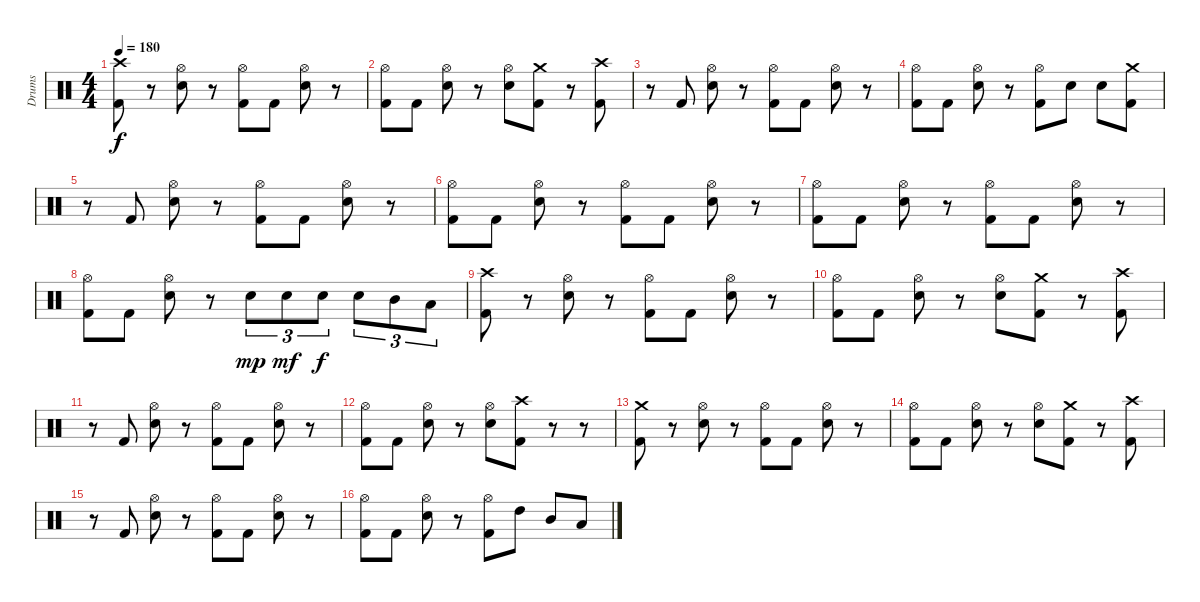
\track ("Drums" "Drums") {instrument percussion}
\staff {score}
\articulation defaults
\ts (4 4)
\tempo 180
\clef neutral
\ks c
("Crash high (hit)" "Kick (hit) 2").8{dy f} r.8 ("Hi-Hat (open)" "Snare (hit) 2").8 r.8 ("Hi-Hat (open)" "Kick (hit) 2").8 "Kick (hit) 2".8 ("Hi-Hat (open)" "Snare (hit) 2").8 r.8 |
("Hi-Hat (open)" "Kick (hit) 2").8 "Kick (hit) 2".8 ("Hi-Hat (open)" "Snare (hit) 2").8 r.8 ("Hi-Hat (open)" "Snare (hit) 2").8 ("Crash medium (hit)" "Kick (hit) 2").8 r.8 ("Crash high (hit)" "Kick (hit) 2").8 |
r.8 "Kick (hit) 2".8 ("Hi-Hat (open)" "Snare (hit) 2").8 r.8 ("Hi-Hat (open)" "Kick (hit) 2").8 "Kick (hit) 2".8 ("Hi-Hat (open)" "Snare (hit) 2").8 r.8 |
("Hi-Hat (open)" "Kick (hit) 2").8 "Kick (hit) 2".8 ("Hi-Hat (open)" "Snare (hit) 2").8 r.8 ("Hi-Hat (open)" "Kick (hit) 2").8 "Snare (hit) 2".8 "Snare (hit) 2".8 ("Crash medium (hit)" "Kick (hit) 2").8 |
r.8 "Kick (hit) 2".8 ("Hi-Hat (open)" "Snare (hit) 2").8 r.8 ("Hi-Hat (open)" "Kick (hit) 2").8 "Kick (hit) 2".8 ("Hi-Hat (open)" "Snare (hit) 2").8 r.8 |
("Hi-Hat (open)" "Kick (hit) 2").8 "Kick (hit) 2".8 ("Hi-Hat (open)" "Snare (hit) 2").8 r.8 ("Hi-Hat (open)" "Kick (hit) 2").8 "Kick (hit) 2".8 ("Hi-Hat (open)" "Snare (hit) 2").8 r.8 |
("Hi-Hat (open)" "Kick (hit) 2").8 "Kick (hit) 2".8 ("Hi-Hat (open)" "Snare (hit) 2").8 r.8 ("Hi-Hat (open)" "Kick (hit) 2").8 "Kick (hit) 2".8 ("Hi-Hat (open)" "Snare (hit) 2").8 r.8 |
("Hi-Hat (open)" "Kick (hit) 2").8 "Kick (hit) 2".8 ("Hi-Hat (open)" "Snare (hit) 2").8 r.8 "Snare (hit) 2".8{tu (3 2) dy mp} "Snare (hit) 2".8{tu (3 2) dy mf} "Snare (hit) 2".8{tu (3 2) dy f} "Snare (hit) 2".8{tu (3 2)} "Mid Tom (hit)".8{tu (3 2)} "Low Tom (hit)".8{tu (3 2)} |
("Crash high (hit)" "Kick (hit) 2").8 r.8 ("Hi-Hat (open)" "Snare (hit) 2").8 r.8 ("Hi-Hat (open)" "Kick (hit) 2").8 "Kick (hit) 2".8 ("Hi-Hat (open)" "Snare (hit) 2").8 r.8 |
("Hi-Hat (open)" "Kick (hit) 2").8 "Kick (hit) 2".8 ("Hi-Hat (open)" "Snare (hit) 2").8 r.8 ("Hi-Hat (open)" "Snare (hit) 2").8 ("Crash medium (hit)" "Kick (hit) 2").8 r.8 ("Crash high (hit)" "Kick (hit) 2").8 |
r.8 "Kick (hit) 2".8 ("Hi-Hat (open)" "Snare (hit) 2").8 r.8 ("Hi-Hat (open)" "Kick (hit) 2").8 "Kick (hit) 2".8 ("Hi-Hat (open)" "Snare (hit) 2").8 r.8 |
("Hi-Hat (open)" "Kick (hit) 2").8 "Kick (hit) 2".8 ("Hi-Hat (open)" "Snare (hit) 2").8 r.8 ("Hi-Hat (open)" "Snare (hit) 2").8 ("Crash high (hit)" "Kick (hit) 2").8 r.8 r.8 |
("Crash medium (hit)" "Kick (hit) 2").8 r.8 ("Hi-Hat (open)" "Snare (hit) 2").8 r.8 ("Hi-Hat (open)" "Kick (hit) 2").8 "Kick (hit) 2".8 ("Hi-Hat (open)" "Snare (hit) 2").8 r.8 |
("Hi-Hat (open)" "Kick (hit) 2").8 "Kick (hit) 2".8 ("Hi-Hat (open)" "Snare (hit) 2").8 r.8 ("Hi-Hat (open)" "Snare (hit) 2").8 ("Crash medium (hit)" "Kick (hit) 2").8 r.8 ("Crash high (hit)" "Kick (hit) 2").8 |
r.8 "Kick (hit) 2".8 ("Hi-Hat (open)" "Snare (hit) 2").8 r.8 ("Hi-Hat (open)" "Kick (hit) 2").8 "Kick (hit) 2".8 ("Hi-Hat (open)" "Snare (hit) 2").8 r.8 |
("Hi-Hat (open)" "Kick (hit) 2").8 "Kick (hit) 2".8 ("Hi-Hat (open)" "Snare (hit) 2").8 r.8 ("Hi-Hat (open)" "Kick (hit) 2").8 "High Tom (hit)".8 "Mid Tom (hit)".8 "Low Tom (hit)".8
